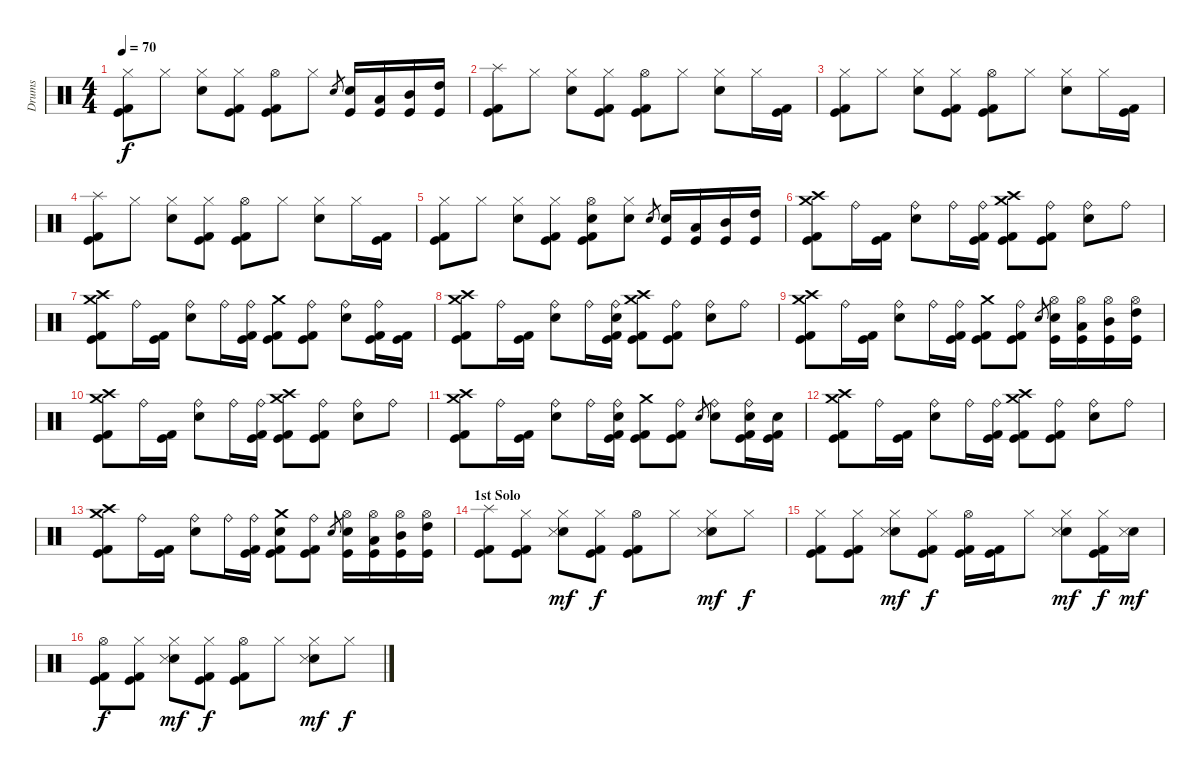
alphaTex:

\track ("Drums" "Drums") {instrument percussion}
\staff {score}
\articulation defaults
\ts (4 4)
\tempo 70
\clef neutral
\ks c
("Hi-Hat (closed)" "Kick (hit) 2" "Kick (hit)").8{dy f} "Hi-Hat (closed)".8 ("Hi-Hat (closed)" "Electric Snare (hit)").8 ("Hi-Hat (closed)" "Kick (hit) 2" "Kick (hit)").8 ("Hi-Hat (open)" "Kick (hit) 2" "Kick (hit)").8 "Hi-Hat (closed)".8 "Electric Snare (hit)".8{gr} ("Electric Snare (hit)" "Kick (hit)").16 ("Low Tom (hit)" "Kick (hit)").16 ("Mid Tom (hit)" "Kick (hit)").16 ("High Tom (hit)" "Kick (hit)").16 |
("Splash (hit)" "Kick (hit) 2" "Kick (hit)").8 "Hi-Hat (closed)".8 ("Hi-Hat (closed)" "Electric Snare (hit)").8 ("Hi-Hat (closed)" "Kick (hit) 2" "Kick (hit)").8 ("Hi-Hat (open)" "Kick (hit) 2" "Kick (hit)").8 "Hi-Hat (closed)".8 ("Hi-Hat (closed)" "Electric Snare (hit)").8 "Hi-Hat (closed)".16 ("Kick (hit) 2" "Kick (hit)").16 |
("Hi-Hat (closed)" "Kick (hit) 2" "Kick (hit)").8 "Hi-Hat (closed)".8 ("Hi-Hat (closed)" "Electric Snare (hit)").8 ("Hi-Hat (closed)" "Kick (hit) 2" "Kick (hit)").8 ("Hi-Hat (open)" "Kick (hit) 2" "Kick (hit)").8 "Hi-Hat (closed)".8 ("Hi-Hat (closed)" "Electric Snare (hit)").8 "Hi-Hat (closed)".16 ("Kick (hit) 2" "Kick (hit)").16 |
("Splash (hit)" "Kick (hit) 2" "Kick (hit)").8 "Hi-Hat (closed)".8 ("Hi-Hat (closed)" "Electric Snare (hit)").8 ("Hi-Hat (closed)" "Kick (hit) 2" "Kick (hit)").8 ("Hi-Hat (open)" "Kick (hit) 2" "Kick (hit)").8 "Hi-Hat (closed)".8 ("Hi-Hat (closed)" "Electric Snare (hit)").8 "Hi-Hat (closed)".16 ("Kick (hit) 2" "Kick (hit)").16 |
("Hi-Hat (closed)" "Kick (hit) 2" "Kick (hit)").8 "Hi-Hat (closed)".8 ("Hi-Hat (closed)" "Electric Snare (hit)").8 ("Hi-Hat (closed)" "Kick (hit) 2" "Kick (hit)").8 ("Hi-Hat (open)" "Electric Snare (hit)" "Kick (hit) 2" "Kick (hit)").8 ("Hi-Hat (closed)" "Electric Snare (hit)").8 "Electric Snare (hit)".8{gr} ("Electric Snare (hit)" "Kick (hit)").16 ("Low Tom (hit)" "Kick (hit)").16 ("Mid Tom (hit)" "Kick (hit)").16 ("High Tom (hit)" "Kick (hit)").16 |
("Crash medium (hit)" "Crash high (hit)" "Kick (hit) 2" "Kick (hit)").8 "Ride (bell)".16 ("Kick (hit) 2" "Kick (hit)").16 ("Ride (bell)" "Electric Snare (hit)").8 "Ride (bell)".16 ("Ride (bell)" "Kick (hit) 2" "Kick (hit)").16 ("Crash medium (hit)" "Crash high (hit)" "Kick (hit) 2" "Kick (hit)").8 ("Ride (bell)" "Kick (hit) 2" "Kick (hit)").8 ("Ride (bell)" "Electric Snare (hit)").8 "Ride (bell)".8 |
("Crash medium (hit)" "Crash high (hit)" "Kick (hit) 2" "Kick (hit)").8 "Ride (bell)".16 ("Kick (hit) 2" "Kick (hit)").16 ("Ride (bell)" "Electric Snare (hit)").8 "Ride (bell)".16 ("Ride (bell)" "Kick (hit) 2" "Kick (hit)").16 ("Crash medium (hit)" "Kick (hit) 2" "Kick (hit)").8 ("Ride (bell)" "Kick (hit) 2" "Kick (hit)").8 ("Ride (bell)" "Electric Snare (hit)").8 ("Ride (bell)" "Kick (hit) 2" "Kick (hit)").16 ("Kick (hit) 2" "Kick (hit)").16 |
("Crash medium (hit)" "Crash high (hit)" "Kick (hit) 2" "Kick (hit)").8 "Ride (bell)".16 ("Kick (hit) 2" "Kick (hit)").16 ("Ride (bell)" "Electric Snare (hit)").8 "Ride (bell)".16 ("Ride (bell)" "Electric Snare (hit)" "Kick (hit) 2" "Kick (hit)").16 ("Crash medium (hit)" "Crash high (hit)" "Kick (hit) 2" "Kick (hit)").8 ("Ride (bell)" "Kick (hit) 2" "Kick (hit)").8 ("Ride (bell)" "Electric Snare (hit)").8 "Ride (bell)".8 |
("Crash medium (hit)" "Crash high (hit)" "Kick (hit) 2" "Kick (hit)").8 "Ride (bell)".16 ("Kick (hit) 2" "Kick (hit)").16 ("Ride (bell)" "Electric Snare (hit)").8 "Ride (bell)".16 ("Ride (bell)" "Kick (hit) 2" "Kick (hit)").16 ("Crash medium (hit)" "Kick (hit) 2" "Kick (hit)").8 ("Ride (bell)" "Kick (hit) 2" "Kick (hit)").8 "Electric Snare (hit)".8{gr} ("Hi-Hat (open)" "Electric Snare (hit)" "Kick (hit)").16 ("Hi-Hat (open)" "Low Tom (hit)" "Kick (hit)").16 ("Hi-Hat (open)" "Mid Tom (hit)" "Kick (hit)").16 ("Hi-Hat (open)" "High Tom (hit)" "Kick (hit)").16 |
("Crash medium (hit)" "Crash high (hit)" "Kick (hit) 2" "Kick (hit)").8 "Ride (bell)".16 ("Kick (hit) 2" "Kick (hit)").16 ("Ride (bell)" "Electric Snare (hit)").8 "Ride (bell)".16 ("Ride (bell)" "Kick (hit) 2" "Kick (hit)").16 ("Crash medium (hit)" "Crash high (hit)" "Kick (hit) 2" "Kick (hit)").8 ("Ride (bell)" "Kick (hit) 2" "Kick (hit)").8 ("Ride (bell)" "Electric Snare (hit)").8 "Ride (bell)".8 |
("Crash medium (hit)" "Crash high (hit)" "Kick (hit) 2" "Kick (hit)").8 "Ride (bell)".16 ("Kick (hit) 2" "Kick (hit)").16 ("Ride (bell)" "Electric Snare (hit)").8 "Ride (bell)".16 ("Ride (bell)" "Electric Snare (hit)" "Kick (hit) 2" "Kick (hit)").16 ("Crash medium (hit)" "Kick (hit) 2" "Kick (hit)").8 ("Ride (bell)" "Kick (hit) 2" "Kick (hit)").8 "Electric Snare (hit)".8{gr} ("Ride (bell)" "Electric Snare (hit)").8 ("Ride (bell)" "Electric Snare (hit)" "Kick (hit) 2" "Kick (hit)").16 ("Electric Snare (hit)" "Kick (hit) 2" "Kick (hit)").16 |
("Crash medium (hit)" "Crash high (hit)" "Kick (hit) 2" "Kick (hit)").8 "Ride (bell)".16 ("Kick (hit) 2" "Kick (hit)").16 ("Ride (bell)" "Electric Snare (hit)").8 "Ride (bell)".16 ("Ride (bell)" "Kick (hit) 2" "Kick (hit)").16 ("Crash medium (hit)" "Crash high (hit)" "Kick (hit) 2" "Kick (hit)").8 ("Ride (bell)" "Kick (hit) 2" "Kick (hit)").8 ("Ride (bell)" "Electric Snare (hit)").8 "Ride (bell)".8 |
("Crash medium (hit)" "Crash high (hit)" "Kick (hit) 2" "Kick (hit)").8 "Ride (bell)".16 ("Kick (hit) 2" "Kick (hit)").16 ("Ride (bell)" "Electric Snare (hit)").8 "Ride (bell)".16 ("Ride (bell)" "Kick (hit) 2" "Kick (hit)").16 ("Crash medium (hit)" "Electric Snare (hit)" "Kick (hit) 2" "Kick (hit)").8 ("Ride (bell)" "Kick (hit) 2" "Kick (hit)").8 "Electric Snare (hit)".8{gr} ("Hi-Hat (open)" "Electric Snare (hit)" "Kick (hit)").16 ("Hi-Hat (open)" "Low Tom (hit)" "Kick (hit)").16 ("Hi-Hat (open)" "Mid Tom (hit)" "Kick (hit)").16 ("Hi-Hat (open)" "High Tom (hit)" "Kick (hit)").16 |
\section ("" "1st Solo")
("Splash (hit)" "Kick (hit) 2" "Kick (hit)").8 ("Hi-Hat (closed)" "Kick (hit) 2" "Kick (hit)").8 ("Hi-Hat (closed)" "Electric Snare (hit)" "Snare (side stick) 3").8{dy mf} ("Hi-Hat (closed)" "Kick (hit) 2" "Kick (hit)").8{dy f} ("Hi-Hat (open)" "Kick (hit) 2" "Kick (hit)").8 "Hi-Hat (closed)".8 ("Hi-Hat (closed)" "Electric Snare (hit)" "Snare (side stick) 3").8{dy mf} "Hi-Hat (closed)".8{dy f} |
("Hi-Hat (closed)" "Kick (hit) 2" "Kick (hit)").8 ("Hi-Hat (closed)" "Kick (hit) 2" "Kick (hit)").8 ("Hi-Hat (closed)" "Electric Snare (hit)" "Snare (side stick) 3").8{dy mf} ("Hi-Hat (closed)" "Kick (hit) 2" "Kick (hit)").8{dy f} ("Hi-Hat (open)" "Kick (hit) 2" "Kick (hit)").16 ("Kick (hit)" "Kick (hit) 2").16 "Hi-Hat (closed)".8 ("Hi-Hat (closed)" "Electric Snare (hit)" "Snare (side stick) 3").8{dy mf} ("Hi-Hat (closed)" "Kick (hit) 2" "Kick (hit)").16{dy f} ("Electric Snare (hit)" "Snare (side stick) 3").16{dy mf} |
("Hi-Hat (open)" "Kick (hit) 2" "Kick (hit)").8{dy f} ("Hi-Hat (closed)" "Kick (hit) 2" "Kick (hit)").8 ("Hi-Hat (closed)" "Electric Snare (hit)" "Snare (side stick) 3").8{dy mf} ("Hi-Hat (closed)" "Kick (hit) 2" "Kick (hit)").8{dy f} ("Hi-Hat (open)" "Kick (hit) 2" "Kick (hit)").8 "Hi-Hat (closed)".8 ("Hi-Hat (closed)" "Electric Snare (hit)" "Snare (side stick) 3").8{dy mf} "Hi-Hat (closed)".8{dy f}
